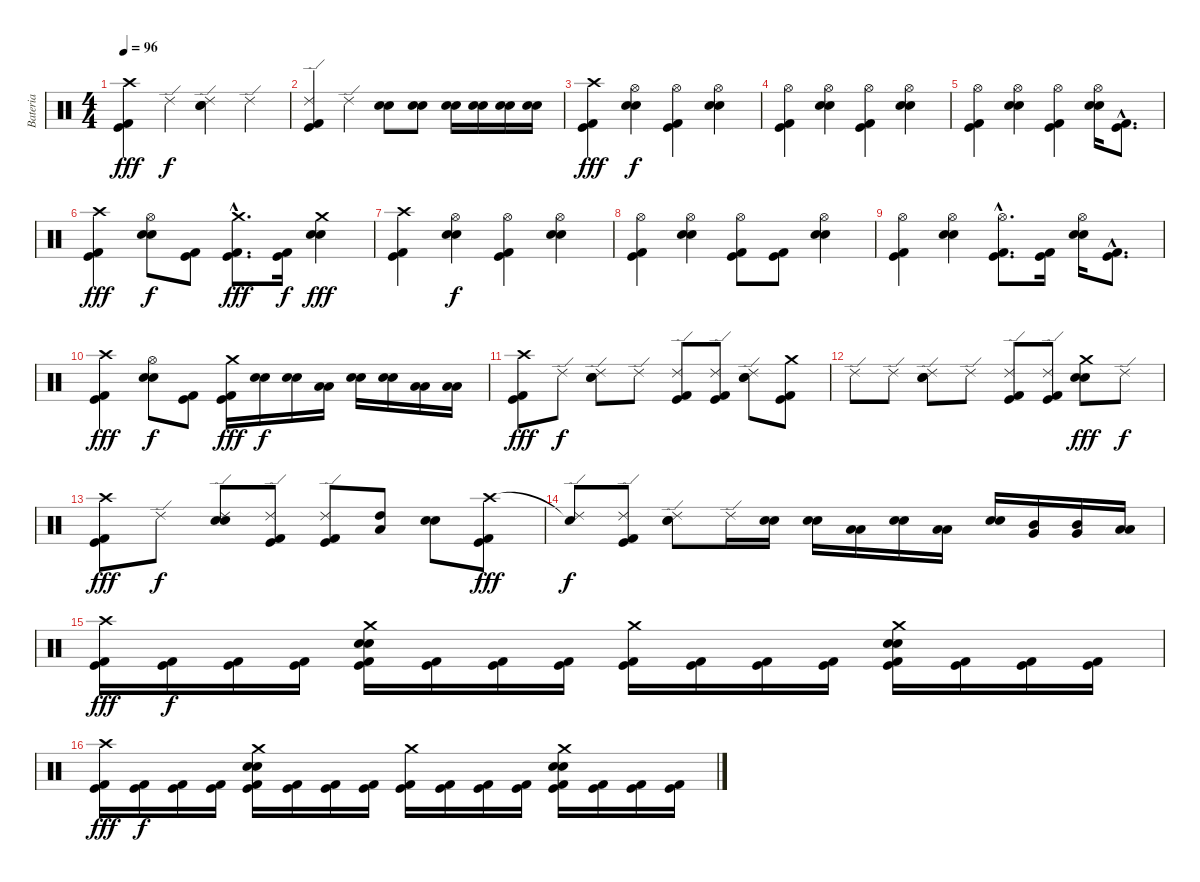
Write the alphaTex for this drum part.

\track ("Bateria" "Bateria") {instrument percussion}
\staff {score}
\articulation defaults
\ts (4 4)
\tempo 96
\clef neutral
\ks c
("Crash high (hit)" "Kick (hit) 2" "Kick (hit)").4{dy fff} "Ride (edge) 2".4{dy f} ("Ride (edge) 2" "Electric Snare (hit)" "Snare (hit) 2").4 "Ride (edge) 2".4 |
("Ride (edge) 2" "Kick (hit) 2" "Kick (hit)").4 "Ride (edge) 2".4 ("Electric Snare (hit)" "Snare (hit) 2").8 ("Electric Snare (hit)" "Snare (hit) 2").8 ("Electric Snare (hit)" "Snare (hit) 2").16 ("Electric Snare (hit)" "Snare (hit) 2").16 ("Electric Snare (hit)" "Snare (hit) 2").16 ("Electric Snare (hit)" "Snare (hit) 2").16 |
("Crash high (hit)" "Kick (hit) 2" "Kick (hit)").4{dy fff} ("Hi-Hat (open)" "Electric Snare (hit)" "Snare (hit) 2").4{dy f} ("Hi-Hat (open)" "Kick (hit) 2" "Kick (hit)").4 ("Hi-Hat (open)" "Electric Snare (hit)" "Snare (hit) 2").4 |
("Hi-Hat (open)" "Kick (hit) 2" "Kick (hit)").4 ("Hi-Hat (open)" "Electric Snare (hit)" "Snare (hit) 2").4 ("Hi-Hat (open)" "Kick (hit) 2" "Kick (hit)").4 ("Hi-Hat (open)" "Electric Snare (hit)" "Snare (hit) 2").4 |
("Hi-Hat (open)" "Kick (hit) 2" "Kick (hit)").4 ("Hi-Hat (open)" "Electric Snare (hit)" "Snare (hit) 2").4 ("Hi-Hat (open)" "Kick (hit) 2" "Kick (hit)").4 ("Hi-Hat (open)" "Electric Snare (hit)" "Snare (hit) 2").16 ("Kick (hit) 2"{hac} "Kick (hit)"{hac}).8{d} |
("Crash high (hit)" "Kick (hit) 2" "Kick (hit)").4{dy fff} ("Hi-Hat (open)" "Electric Snare (hit)" "Snare (hit) 2").8{dy f} ("Kick (hit) 2" "Kick (hit)").8 ("Crash medium (hit)"{hac} "Kick (hit) 2"{hac} "Kick (hit)"{hac}).8{d dy fff} ("Kick (hit) 2" "Kick (hit)").16{dy f} ("Crash medium (hit)" "Electric Snare (hit)" "Snare (hit) 2").4{dy fff} |
("Crash high (hit)" "Kick (hit) 2" "Kick (hit)").4 ("Hi-Hat (open)" "Electric Snare (hit)" "Snare (hit) 2").4{dy f} ("Hi-Hat (open)" "Kick (hit) 2" "Kick (hit)").4 ("Hi-Hat (open)" "Electric Snare (hit)" "Snare (hit) 2").4 |
("Hi-Hat (open)" "Kick (hit) 2" "Kick (hit)").4 ("Hi-Hat (open)" "Electric Snare (hit)" "Snare (hit) 2").4 ("Hi-Hat (open)" "Kick (hit) 2" "Kick (hit)").8 ("Kick (hit) 2" "Kick (hit)").8 ("Hi-Hat (open)" "Electric Snare (hit)" "Snare (hit) 2").4 |
("Hi-Hat (open)" "Kick (hit) 2" "Kick (hit)").4 ("Hi-Hat (open)" "Electric Snare (hit)" "Snare (hit) 2").4 ("Hi-Hat (open)"{hac} "Kick (hit) 2"{hac} "Kick (hit)"{hac}).8{d} ("Kick (hit) 2" "Kick (hit)").16 ("Hi-Hat (open)" "Electric Snare (hit)" "Snare (hit) 2").16 ("Kick (hit) 2"{hac} "Kick (hit)"{hac}).8{d} |
("Crash high (hit)" "Kick (hit) 2" "Kick (hit)").4{dy fff} ("Hi-Hat (open)" "Electric Snare (hit)" "Snare (hit) 2").8{dy f} ("Kick (hit) 2" "Kick (hit)").8 ("Crash medium (hit)" "Kick (hit) 2" "Kick (hit)").16{dy fff} ("Electric Snare (hit)" "Snare (hit) 2").16{dy f} ("Electric Snare (hit)" "Snare (hit) 2").16 ("Low Tom (hit)" "Low Floor Tom (hit)").16 ("Electric Snare (hit)" "Snare (hit) 2").16 ("Electric Snare (hit)" "Snare (hit) 2").16 ("Low Tom (hit)" "Low Floor Tom (hit)").16 ("Low Tom (hit)" "Low Floor Tom (hit)").16 |
("Crash high (hit)" "Kick (hit) 2" "Kick (hit)").8{dy fff} "Ride (edge) 2".8{dy f} ("Ride (edge) 2" "Electric Snare (hit)" "Snare (hit) 2").8 "Ride (edge) 2".8 ("Ride (edge) 2" "Kick (hit) 2" "Kick (hit)").8 ("Ride (edge) 2" "Kick (hit) 2" "Kick (hit)").8 ("Ride (edge) 2" "Electric Snare (hit)" "Snare (hit) 2").8 ("Crash medium (hit)" "Kick (hit) 2" "Kick (hit)").8 |
"Ride (edge) 2".8 "Ride (edge) 2".8 ("Ride (edge) 2" "Electric Snare (hit)" "Snare (hit) 2").8 "Ride (edge) 2".8 ("Ride (edge) 2" "Kick (hit) 2" "Kick (hit)").8 ("Ride (edge) 2" "Kick (hit) 2" "Kick (hit)").8 ("Crash medium (hit)" "Electric Snare (hit)" "Snare (hit) 2").8{dy fff} "Ride (edge) 2".8{dy f} |
("Crash high (hit)" "Kick (hit) 2" "Kick (hit)").8{dy fff} "Ride (edge) 2".8{dy f} ("Ride (edge) 2" "Electric Snare (hit)" "Snare (hit) 2").8 ("Ride (edge) 2" "Kick (hit) 2" "Kick (hit)").8 ("Ride (edge) 2" "Kick (hit) 2" "Kick (hit)").8 ("High Tom (hit)" "Low Tom (hit)").8 ("Electric Snare (hit)" "Snare (hit) 2").8 ("Crash high (hit)" "Kick (hit) 2" "Kick (hit)").8{dy fff} |
("Snare (hit)"{t} "Ride (edge) 2").8{dy f} ("Ride (edge) 2" "Kick (hit) 2" "Kick (hit)").8 ("Ride (edge) 2" "Electric Snare (hit)" "Snare (hit) 2").8 "Ride (edge) 2".16 ("Electric Snare (hit)" "Snare (hit) 2").16 ("Electric Snare (hit)" "Snare (hit) 2").16 ("Low Tom (hit)" "Low Floor Tom (hit)").16 ("Electric Snare (hit)" "Snare (hit) 2").16 ("Low Tom (hit)" "Low Floor Tom (hit)").16 ("Electric Snare (hit)" "Snare (hit) 2").16 ("Mid Tom (hit)" "Very Low Tom (hit)").16 ("Mid Tom (hit)" "Very Low Tom (hit)").16 ("Low Tom (hit)" "Low Floor Tom (hit)").16 |
("Crash high (hit)" "Kick (hit) 2" "Kick (hit)").16{dy fff} ("Kick (hit) 2" "Kick (hit)").16{dy f} ("Kick (hit) 2" "Kick (hit)").16 ("Kick (hit) 2" "Kick (hit)").16 ("Crash medium (hit)" "Electric Snare (hit)" "Snare (hit) 2" "Kick (hit) 2" "Kick (hit)").16 ("Kick (hit) 2" "Kick (hit)").16 ("Kick (hit) 2" "Kick (hit)").16 ("Kick (hit) 2" "Kick (hit)").16 ("Crash medium (hit)" "Kick (hit) 2" "Kick (hit)").16 ("Kick (hit) 2" "Kick (hit)").16 ("Kick (hit) 2" "Kick (hit)").16 ("Kick (hit) 2" "Kick (hit)").16 ("Crash medium (hit)" "Electric Snare (hit)" "Snare (hit) 2" "Kick (hit) 2" "Kick (hit)").16 ("Kick (hit) 2" "Kick (hit)").16 ("Kick (hit) 2" "Kick (hit)").16 ("Kick (hit) 2" "Kick (hit)").16 |
("Crash high (hit)" "Kick (hit) 2" "Kick (hit)").16{dy fff} ("Kick (hit) 2" "Kick (hit)").16{dy f} ("Kick (hit) 2" "Kick (hit)").16 ("Kick (hit) 2" "Kick (hit)").16 ("Crash medium (hit)" "Electric Snare (hit)" "Snare (hit) 2" "Kick (hit) 2" "Kick (hit)").16 ("Kick (hit) 2" "Kick (hit)").16 ("Kick (hit) 2" "Kick (hit)").16 ("Kick (hit) 2" "Kick (hit)").16 ("Crash medium (hit)" "Kick (hit) 2" "Kick (hit)").16 ("Kick (hit) 2" "Kick (hit)").16 ("Kick (hit) 2" "Kick (hit)").16 ("Kick (hit) 2" "Kick (hit)").16 ("Crash medium (hit)" "Electric Snare (hit)" "Snare (hit) 2" "Kick (hit) 2" "Kick (hit)").16 ("Kick (hit) 2" "Kick (hit)").16 ("Kick (hit) 2" "Kick (hit)").16 ("Kick (hit) 2" "Kick (hit)").16
